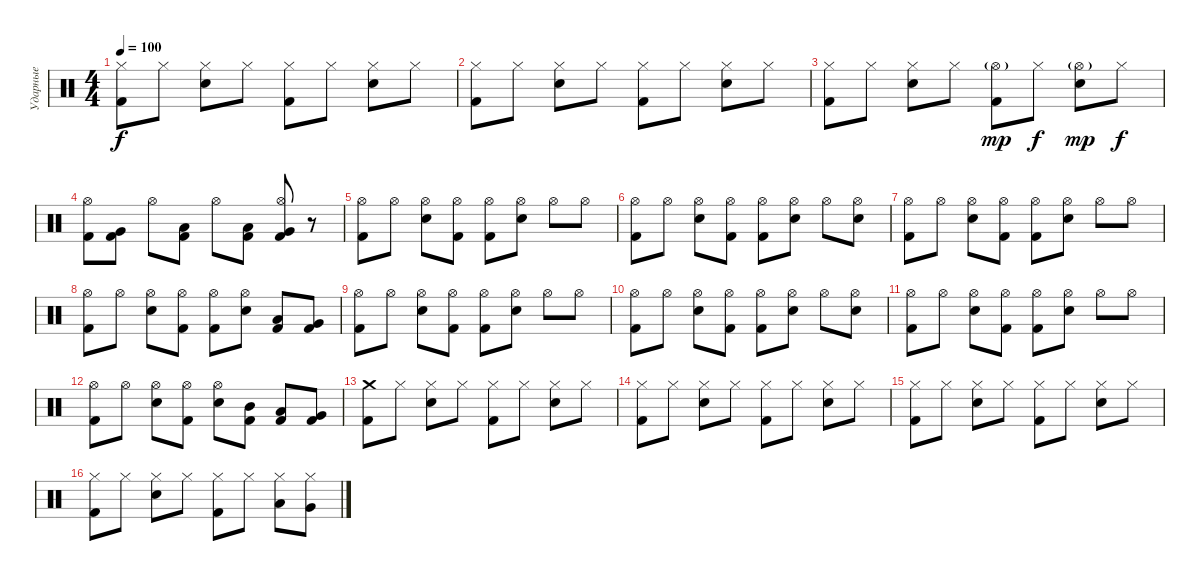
\track ("Ударные" "Ударные") {instrument percussion}
\staff {score}
\articulation defaults
\ts (4 4)
\tempo 100
\clef neutral
\ks c
("Kick (hit) 2" "Hi-Hat (closed)").8{dy f} "Hi-Hat (closed)".8 ("Electric Snare (hit)" "Hi-Hat (closed)").8 "Hi-Hat (closed)".8 ("Kick (hit) 2" "Hi-Hat (closed)").8 "Hi-Hat (closed)".8 ("Electric Snare (hit)" "Hi-Hat (closed)").8 "Hi-Hat (closed)".8 |
("Kick (hit) 2" "Hi-Hat (closed)").8 "Hi-Hat (closed)".8 ("Electric Snare (hit)" "Hi-Hat (closed)").8 "Hi-Hat (closed)".8 ("Kick (hit) 2" "Hi-Hat (closed)").8 "Hi-Hat (closed)".8 ("Electric Snare (hit)" "Hi-Hat (closed)").8 "Hi-Hat (closed)".8 |
("Kick (hit) 2" "Hi-Hat (closed)").8 "Hi-Hat (closed)".8 ("Electric Snare (hit)" "Hi-Hat (closed)").8 "Hi-Hat (closed)".8 ("Kick (hit) 2" "Hi-Hat (open)"{g}).8{dy mp} "Hi-Hat (closed)".8{dy f} ("Electric Snare (hit)" "Hi-Hat (open)"{g}).8{dy mp} "Hi-Hat (closed)".8{dy f} |
("Kick (hit) 2" "Hi-Hat (open)").8 ("Very Low Tom (hit)" "Kick (hit) 2").8 "Hi-Hat (open)".8 ("Low Tom (hit)" "Kick (hit) 2").8 "Hi-Hat (open)".8 ("Low Floor Tom (hit)" "Kick (hit) 2").8 ("Very Low Tom (hit)" "Kick (hit) 2" "Hi-Hat (open)").8 r.8 |
("Kick (hit) 2" "Hi-Hat (open)").8 "Hi-Hat (open)".8 ("Electric Snare (hit)" "Hi-Hat (open)").8 ("Kick (hit) 2" "Hi-Hat (open)").8 ("Kick (hit) 2" "Hi-Hat (open)").8 ("Electric Snare (hit)" "Hi-Hat (open)").8 "Hi-Hat (open)".8 "Hi-Hat (open)".8 |
("Kick (hit) 2" "Hi-Hat (open)").8 "Hi-Hat (open)".8 ("Electric Snare (hit)" "Hi-Hat (open)").8 ("Kick (hit) 2" "Hi-Hat (open)").8 ("Kick (hit) 2" "Hi-Hat (open)").8 ("Electric Snare (hit)" "Hi-Hat (open)").8 "Hi-Hat (open)".8 ("Electric Snare (hit)" "Hi-Hat (open)").8 |
("Kick (hit) 2" "Hi-Hat (open)").8 "Hi-Hat (open)".8 ("Electric Snare (hit)" "Hi-Hat (open)").8 ("Kick (hit) 2" "Hi-Hat (open)").8 ("Kick (hit) 2" "Hi-Hat (open)").8 ("Electric Snare (hit)" "Hi-Hat (open)").8 "Hi-Hat (open)".8 "Hi-Hat (open)".8 |
("Kick (hit) 2" "Hi-Hat (open)").8 "Hi-Hat (open)".8 ("Electric Snare (hit)" "Hi-Hat (open)").8 ("Kick (hit) 2" "Hi-Hat (open)").8 ("Kick (hit) 2" "Hi-Hat (open)").8 ("Electric Snare (hit)" "Hi-Hat (open)").8 ("Low Tom (hit)" "Kick (hit) 2").8 ("Very Low Tom (hit)" "Kick (hit) 2").8 |
("Kick (hit) 2" "Hi-Hat (open)").8 "Hi-Hat (open)".8 ("Electric Snare (hit)" "Hi-Hat (open)").8 ("Kick (hit) 2" "Hi-Hat (open)").8 ("Kick (hit) 2" "Hi-Hat (open)").8 ("Electric Snare (hit)" "Hi-Hat (open)").8 "Hi-Hat (open)".8 "Hi-Hat (open)".8 |
("Kick (hit) 2" "Hi-Hat (open)").8 "Hi-Hat (open)".8 ("Electric Snare (hit)" "Hi-Hat (open)").8 ("Kick (hit) 2" "Hi-Hat (open)").8 ("Kick (hit) 2" "Hi-Hat (open)").8 ("Electric Snare (hit)" "Hi-Hat (open)").8 "Hi-Hat (open)".8 ("Electric Snare (hit)" "Hi-Hat (open)").8 |
("Kick (hit) 2" "Hi-Hat (open)").8 "Hi-Hat (open)".8 ("Electric Snare (hit)" "Hi-Hat (open)").8 ("Kick (hit) 2" "Hi-Hat (open)").8 ("Kick (hit) 2" "Hi-Hat (open)").8 ("Electric Snare (hit)" "Hi-Hat (open)").8 "Hi-Hat (open)".8 "Hi-Hat (open)".8 |
("Kick (hit) 2" "Hi-Hat (open)").8 "Hi-Hat (open)".8 ("Electric Snare (hit)" "Hi-Hat (open)").8 ("Kick (hit) 2" "Hi-Hat (open)").8 ("Electric Snare (hit)" "Hi-Hat (open)").8 ("Mid Tom (hit)" "Kick (hit) 2").8 ("Low Tom (hit)" "Kick (hit) 2").8 ("Very Low Tom (hit)" "Kick (hit) 2").8 |
("Kick (hit) 2" "Crash medium (hit)").8 "Hi-Hat (closed)".8 ("Electric Snare (hit)" "Hi-Hat (closed)").8 "Hi-Hat (closed)".8 ("Kick (hit) 2" "Hi-Hat (closed)").8 "Hi-Hat (closed)".8 ("Electric Snare (hit)" "Hi-Hat (closed)").8 "Hi-Hat (closed)".8 |
("Kick (hit) 2" "Hi-Hat (closed)").8 "Hi-Hat (closed)".8 ("Electric Snare (hit)" "Hi-Hat (closed)").8 "Hi-Hat (closed)".8 ("Kick (hit) 2" "Hi-Hat (closed)").8 "Hi-Hat (closed)".8 ("Electric Snare (hit)" "Hi-Hat (closed)").8 "Hi-Hat (closed)".8 |
("Kick (hit) 2" "Hi-Hat (closed)").8 "Hi-Hat (closed)".8 ("Electric Snare (hit)" "Hi-Hat (closed)").8 "Hi-Hat (closed)".8 ("Kick (hit) 2" "Hi-Hat (closed)").8 "Hi-Hat (closed)".8 ("Electric Snare (hit)" "Hi-Hat (closed)").8 "Hi-Hat (closed)".8 |
("Kick (hit) 2" "Hi-Hat (closed)").8 "Hi-Hat (closed)".8 ("Electric Snare (hit)" "Hi-Hat (closed)").8 "Hi-Hat (closed)".8 ("Kick (hit) 2" "Hi-Hat (closed)").8 "Hi-Hat (closed)".8 ("Low Tom (hit)" "Hi-Hat (closed)").8 ("Very Low Tom (hit)" "Hi-Hat (closed)").8
